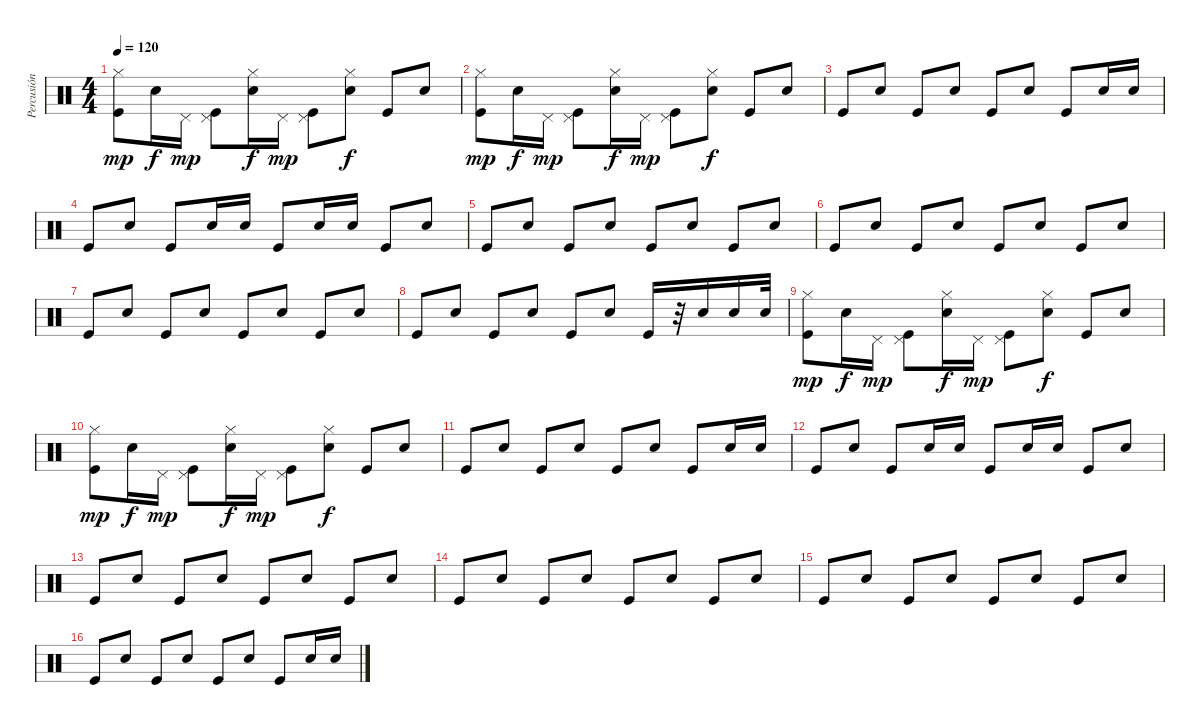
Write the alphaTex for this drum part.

\track ("Percusión" "Percusión") {instrument percussion}
\staff {score}
\articulation defaults
\ts (4 4)
\tempo 120
\clef neutral
\ks c
("Hi-Hat (closed)" "Kick (hit)").8{dy mp} "Snare (hit) 2".16{dy f} "Pedal Hi-Hat (hit)".16{dy mp} ("Pedal Hi-Hat (hit)" "Kick (hit)").8 ("Hi-Hat (closed)" "Snare (hit) 2").16{dy f} "Pedal Hi-Hat (hit)".16{dy mp} ("Pedal Hi-Hat (hit)" "Kick (hit)").8 ("Hi-Hat (closed)" "Snare (hit) 2").8{dy f} "Kick (hit)".8 "Snare (hit) 2".8 |
("Hi-Hat (closed)" "Kick (hit)").8{dy mp} "Snare (hit) 2".16{dy f} "Pedal Hi-Hat (hit)".16{dy mp} ("Pedal Hi-Hat (hit)" "Kick (hit)").8 ("Hi-Hat (closed)" "Snare (hit) 2").16{dy f} "Pedal Hi-Hat (hit)".16{dy mp} ("Pedal Hi-Hat (hit)" "Kick (hit)").8 ("Hi-Hat (closed)" "Snare (hit) 2").8{dy f} "Kick (hit)".8 "Snare (hit) 2".8 |
"Kick (hit)".8 "Snare (hit) 2".8 "Kick (hit)".8 "Snare (hit) 2".8 "Kick (hit)".8 "Snare (hit) 2".8 "Kick (hit)".8 "Snare (hit) 2".16 "Snare (hit) 2".16 |
"Kick (hit)".8 "Snare (hit) 2".8 "Kick (hit)".8 "Snare (hit) 2".16 "Snare (hit) 2".16 "Kick (hit)".8 "Snare (hit) 2".16 "Snare (hit) 2".16 "Kick (hit)".8 "Snare (hit) 2".8 |
"Kick (hit)".8 "Snare (hit) 2".8 "Kick (hit)".8 "Snare (hit) 2".8 "Kick (hit)".8 "Snare (hit) 2".8 "Kick (hit)".8 "Snare (hit) 2".8 |
"Kick (hit)".8 "Snare (hit) 2".8 "Kick (hit)".8 "Snare (hit) 2".8 "Kick (hit)".8 "Snare (hit) 2".8 "Kick (hit)".8 "Snare (hit) 2".8 |
"Kick (hit)".8 "Snare (hit) 2".8 "Kick (hit)".8 "Snare (hit) 2".8 "Kick (hit)".8 "Snare (hit) 2".8 "Kick (hit)".8 "Snare (hit) 2".8 |
"Kick (hit)".8 "Snare (hit) 2".8 "Kick (hit)".8 "Snare (hit) 2".8 "Kick (hit)".8 "Snare (hit) 2".8 "Kick (hit)".16 r.32 "Snare (hit) 2".16 "Snare (hit) 2".16 "Snare (hit) 2".32 |
("Hi-Hat (closed)" "Kick (hit)").8{dy mp} "Snare (hit) 2".16{dy f} "Pedal Hi-Hat (hit)".16{dy mp} ("Pedal Hi-Hat (hit)" "Kick (hit)").8 ("Hi-Hat (closed)" "Snare (hit) 2").16{dy f} "Pedal Hi-Hat (hit)".16{dy mp} ("Pedal Hi-Hat (hit)" "Kick (hit)").8 ("Hi-Hat (closed)" "Snare (hit) 2").8{dy f} "Kick (hit)".8 "Snare (hit) 2".8 |
("Hi-Hat (closed)" "Kick (hit)").8{dy mp} "Snare (hit) 2".16{dy f} "Pedal Hi-Hat (hit)".16{dy mp} ("Pedal Hi-Hat (hit)" "Kick (hit)").8 ("Hi-Hat (closed)" "Snare (hit) 2").16{dy f} "Pedal Hi-Hat (hit)".16{dy mp} ("Pedal Hi-Hat (hit)" "Kick (hit)").8 ("Hi-Hat (closed)" "Snare (hit) 2").8{dy f} "Kick (hit)".8 "Snare (hit) 2".8 |
"Kick (hit)".8 "Snare (hit) 2".8 "Kick (hit)".8 "Snare (hit) 2".8 "Kick (hit)".8 "Snare (hit) 2".8 "Kick (hit)".8 "Snare (hit) 2".16 "Snare (hit) 2".16 |
"Kick (hit)".8 "Snare (hit) 2".8 "Kick (hit)".8 "Snare (hit) 2".16 "Snare (hit) 2".16 "Kick (hit)".8 "Snare (hit) 2".16 "Snare (hit) 2".16 "Kick (hit)".8 "Snare (hit) 2".8 |
"Kick (hit)".8 "Snare (hit) 2".8 "Kick (hit)".8 "Snare (hit) 2".8 "Kick (hit)".8 "Snare (hit) 2".8 "Kick (hit)".8 "Snare (hit) 2".8 |
"Kick (hit)".8 "Snare (hit) 2".8 "Kick (hit)".8 "Snare (hit) 2".8 "Kick (hit)".8 "Snare (hit) 2".8 "Kick (hit)".8 "Snare (hit) 2".8 |
"Kick (hit)".8 "Snare (hit) 2".8 "Kick (hit)".8 "Snare (hit) 2".8 "Kick (hit)".8 "Snare (hit) 2".8 "Kick (hit)".8 "Snare (hit) 2".8 |
"Kick (hit)".8 "Snare (hit) 2".8 "Kick (hit)".8 "Snare (hit) 2".8 "Kick (hit)".8 "Snare (hit) 2".8 "Kick (hit)".8 "Snare (hit) 2".16 "Snare (hit) 2".16
